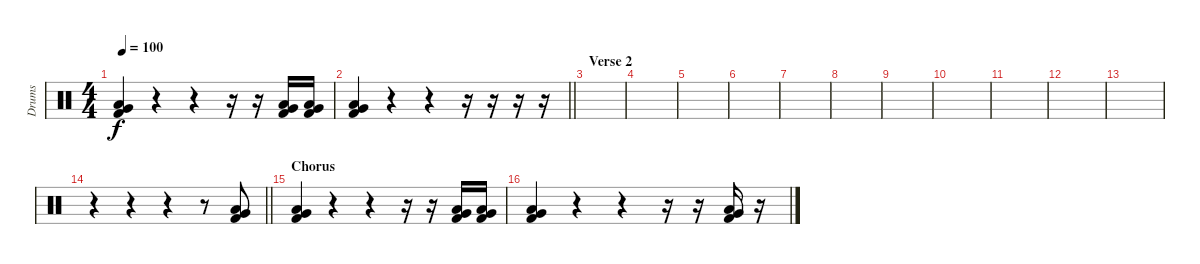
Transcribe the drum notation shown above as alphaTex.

\track ("Drums" "Drums") {instrument percussion}
\staff {score}
\articulation defaults
\ts (4 4)
\tempo 100
\clef neutral
\ks c
("Low Floor Tom (hit)" "Kick (hit) 2" "Very Low Tom (hit)").4{dy f} r.4 r.4 r.16 r.16 ("Low Floor Tom (hit)" "Kick (hit) 2" "Very Low Tom (hit)").16 ("Low Floor Tom (hit)" "Kick (hit) 2" "Very Low Tom (hit)").16 |
\barLineRight lightlight
("Low Floor Tom (hit)" "Kick (hit) 2" "Very Low Tom (hit)").4 r.4 r.4 r.16 r.16 r.16 r.16 |
\section ("" "Verse 2")
|
|
|
|
|
|
|
|
|
|
|
\barLineRight lightlight
r.4 r.4 r.4 r.8 ("Low Floor Tom (hit)" "Kick (hit) 2" "Very Low Tom (hit)").8 |
\section ("" "Chorus")
("Low Floor Tom (hit)" "Kick (hit) 2" "Very Low Tom (hit)").4 r.4 r.4 r.16 r.16 ("Low Floor Tom (hit)" "Kick (hit) 2" "Very Low Tom (hit)").16 ("Low Floor Tom (hit)" "Kick (hit) 2" "Very Low Tom (hit)").16 |
("Low Floor Tom (hit)" "Kick (hit) 2" "Very Low Tom (hit)").4 r.4 r.4 r.16 r.16 ("Low Floor Tom (hit)" "Kick (hit) 2" "Very Low Tom (hit)").16 r.16
